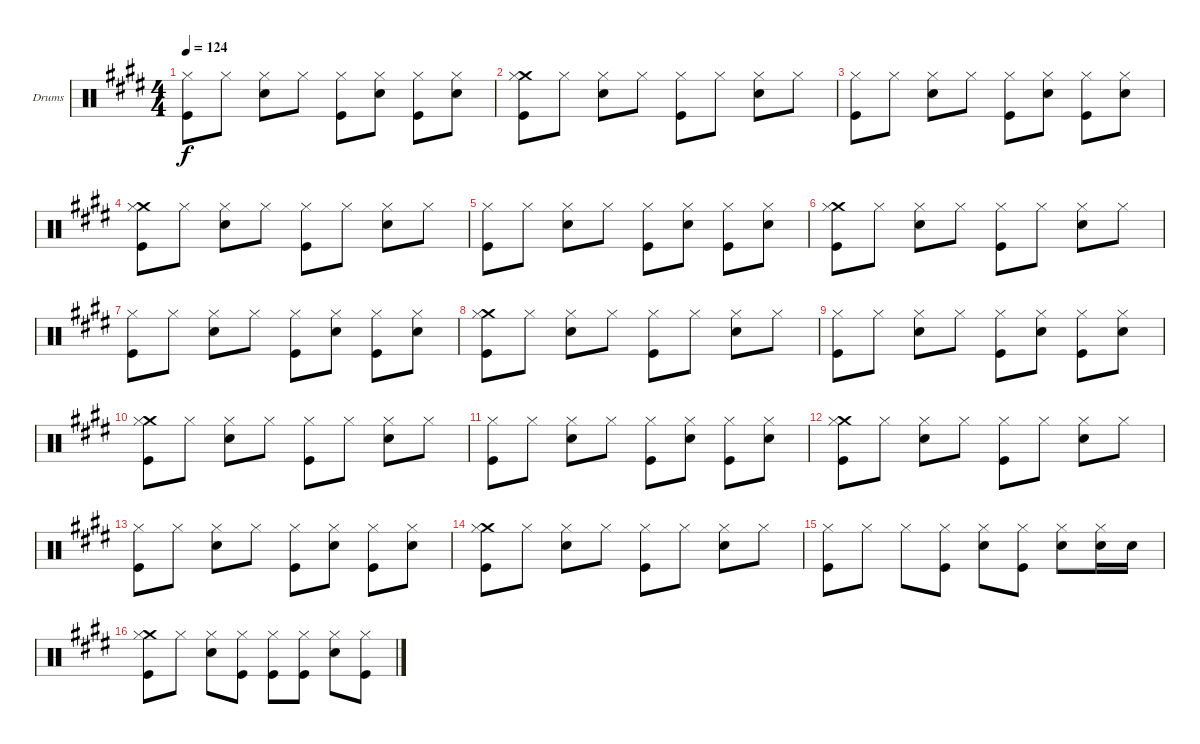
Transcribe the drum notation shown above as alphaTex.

\defaultSystemsLayout 4
\bracketExtendMode groupsimilarinstruments
\firstSystemTrackNameOrientation horizontal
\otherSystemsTrackNameOrientation horizontal
\track ("Drumkit" "Drums") {instrument percussion}
\staff {score}
\articulation defaults
\ts (4 4)
\tempo 124
\clef neutral
\scale
1.06557
\ks e
("Hi-Hat (closed)" "Kick (hit)").8{dy f} "Hi-Hat (closed)".8 ("Hi-Hat (closed)" "Snare (hit) 2").8 "Hi-Hat (closed)".8 ("Hi-Hat (closed)" "Kick (hit)").8 ("Hi-Hat (closed)" "Snare (hit) 2").8 ("Hi-Hat (closed)" "Kick (hit)").8 ("Hi-Hat (closed)" "Snare (hit) 2").8 |
\scale
0.934426 ("Crash medium (hit)" "Hi-Hat (closed)" "Kick (hit)").8 "Hi-Hat (closed)".8 ("Hi-Hat (closed)" "Snare (hit) 2").8 "Hi-Hat (closed)".8 ("Hi-Hat (closed)" "Kick (hit)").8 "Hi-Hat (closed)".8 ("Hi-Hat (closed)" "Snare (hit) 2").8 "Hi-Hat (closed)".8 |
\scale
1.06557 ("Hi-Hat (closed)" "Kick (hit)").8 "Hi-Hat (closed)".8 ("Hi-Hat (closed)" "Snare (hit) 2").8 "Hi-Hat (closed)".8 ("Hi-Hat (closed)" "Kick (hit)").8 ("Hi-Hat (closed)" "Snare (hit) 2").8 ("Hi-Hat (closed)" "Kick (hit)").8 ("Hi-Hat (closed)" "Snare (hit) 2").8 |
\scale
0.934426 ("Crash medium (hit)" "Hi-Hat (closed)" "Kick (hit)").8 "Hi-Hat (closed)".8 ("Hi-Hat (closed)" "Snare (hit) 2").8 "Hi-Hat (closed)".8 ("Hi-Hat (closed)" "Kick (hit)").8 "Hi-Hat (closed)".8 ("Hi-Hat (closed)" "Snare (hit) 2").8 "Hi-Hat (closed)".8 |
\scale
1.06557 ("Hi-Hat (closed)" "Kick (hit)").8 "Hi-Hat (closed)".8 ("Hi-Hat (closed)" "Snare (hit) 2").8 "Hi-Hat (closed)".8 ("Hi-Hat (closed)" "Kick (hit)").8 ("Hi-Hat (closed)" "Snare (hit) 2").8 ("Hi-Hat (closed)" "Kick (hit)").8 ("Hi-Hat (closed)" "Snare (hit) 2").8 |
\scale
0.934426 ("Crash medium (hit)" "Hi-Hat (closed)" "Kick (hit)").8 "Hi-Hat (closed)".8 ("Hi-Hat (closed)" "Snare (hit) 2").8 "Hi-Hat (closed)".8 ("Hi-Hat (closed)" "Kick (hit)").8 "Hi-Hat (closed)".8 ("Hi-Hat (closed)" "Snare (hit) 2").8 "Hi-Hat (closed)".8 |
\scale
1.06557 ("Hi-Hat (closed)" "Kick (hit)").8 "Hi-Hat (closed)".8 ("Hi-Hat (closed)" "Snare (hit) 2").8 "Hi-Hat (closed)".8 ("Hi-Hat (closed)" "Kick (hit)").8 ("Hi-Hat (closed)" "Snare (hit) 2").8 ("Hi-Hat (closed)" "Kick (hit)").8 ("Hi-Hat (closed)" "Snare (hit) 2").8 |
\scale
0.934426 ("Crash medium (hit)" "Hi-Hat (closed)" "Kick (hit)").8 "Hi-Hat (closed)".8 ("Hi-Hat (closed)" "Snare (hit) 2").8 "Hi-Hat (closed)".8 ("Hi-Hat (closed)" "Kick (hit)").8 "Hi-Hat (closed)".8 ("Hi-Hat (closed)" "Snare (hit) 2").8 "Hi-Hat (closed)".8 |
\scale
1.06557 ("Hi-Hat (closed)" "Kick (hit)").8 "Hi-Hat (closed)".8 ("Hi-Hat (closed)" "Snare (hit) 2").8 "Hi-Hat (closed)".8 ("Hi-Hat (closed)" "Kick (hit)").8 ("Hi-Hat (closed)" "Snare (hit) 2").8 ("Hi-Hat (closed)" "Kick (hit)").8 ("Hi-Hat (closed)" "Snare (hit) 2").8 |
\scale
0.934426 ("Crash medium (hit)" "Hi-Hat (closed)" "Kick (hit)").8 "Hi-Hat (closed)".8 ("Hi-Hat (closed)" "Snare (hit) 2").8 "Hi-Hat (closed)".8 ("Hi-Hat (closed)" "Kick (hit)").8 "Hi-Hat (closed)".8 ("Hi-Hat (closed)" "Snare (hit) 2").8 "Hi-Hat (closed)".8 |
\scale
1.06557 ("Hi-Hat (closed)" "Kick (hit)").8 "Hi-Hat (closed)".8 ("Hi-Hat (closed)" "Snare (hit) 2").8 "Hi-Hat (closed)".8 ("Hi-Hat (closed)" "Kick (hit)").8 ("Hi-Hat (closed)" "Snare (hit) 2").8 ("Hi-Hat (closed)" "Kick (hit)").8 ("Hi-Hat (closed)" "Snare (hit) 2").8 |
\scale
0.934426 ("Crash medium (hit)" "Hi-Hat (closed)" "Kick (hit)").8 "Hi-Hat (closed)".8 ("Hi-Hat (closed)" "Snare (hit) 2").8 "Hi-Hat (closed)".8 ("Hi-Hat (closed)" "Kick (hit)").8 "Hi-Hat (closed)".8 ("Hi-Hat (closed)" "Snare (hit) 2").8 "Hi-Hat (closed)".8 |
\scale
1.06557 ("Hi-Hat (closed)" "Kick (hit)").8 "Hi-Hat (closed)".8 ("Hi-Hat (closed)" "Snare (hit) 2").8 "Hi-Hat (closed)".8 ("Hi-Hat (closed)" "Kick (hit)").8 ("Hi-Hat (closed)" "Snare (hit) 2").8 ("Hi-Hat (closed)" "Kick (hit)").8 ("Hi-Hat (closed)" "Snare (hit) 2").8 |
\scale
0.934426 ("Crash medium (hit)" "Hi-Hat (closed)" "Kick (hit)").8 "Hi-Hat (closed)".8 ("Hi-Hat (closed)" "Snare (hit) 2").8 "Hi-Hat (closed)".8 ("Hi-Hat (closed)" "Kick (hit)").8 "Hi-Hat (closed)".8 ("Hi-Hat (closed)" "Snare (hit) 2").8 "Hi-Hat (closed)".8 |
\scale
1.06557 ("Hi-Hat (closed)" "Kick (hit)").8 "Hi-Hat (closed)".8 "Hi-Hat (closed)".8 ("Hi-Hat (closed)" "Kick (hit)").8 ("Hi-Hat (closed)" "Snare (hit) 2").8 ("Hi-Hat (closed)" "Kick (hit)").8 ("Hi-Hat (closed)" "Snare (hit) 2").8 ("Hi-Hat (closed)" "Snare (hit) 2").16 "Snare (hit) 2".16 |
\scale
0.934426 ("Crash medium (hit)" "Hi-Hat (closed)" "Kick (hit)").8 "Hi-Hat (closed)".8 ("Hi-Hat (closed)" "Snare (hit) 2").8 ("Hi-Hat (closed)" "Kick (hit)").8 ("Hi-Hat (closed)" "Kick (hit)").8 ("Hi-Hat (closed)" "Kick (hit)").8 ("Hi-Hat (closed)" "Snare (hit) 2").8 ("Hi-Hat (closed)" "Kick (hit)").8
